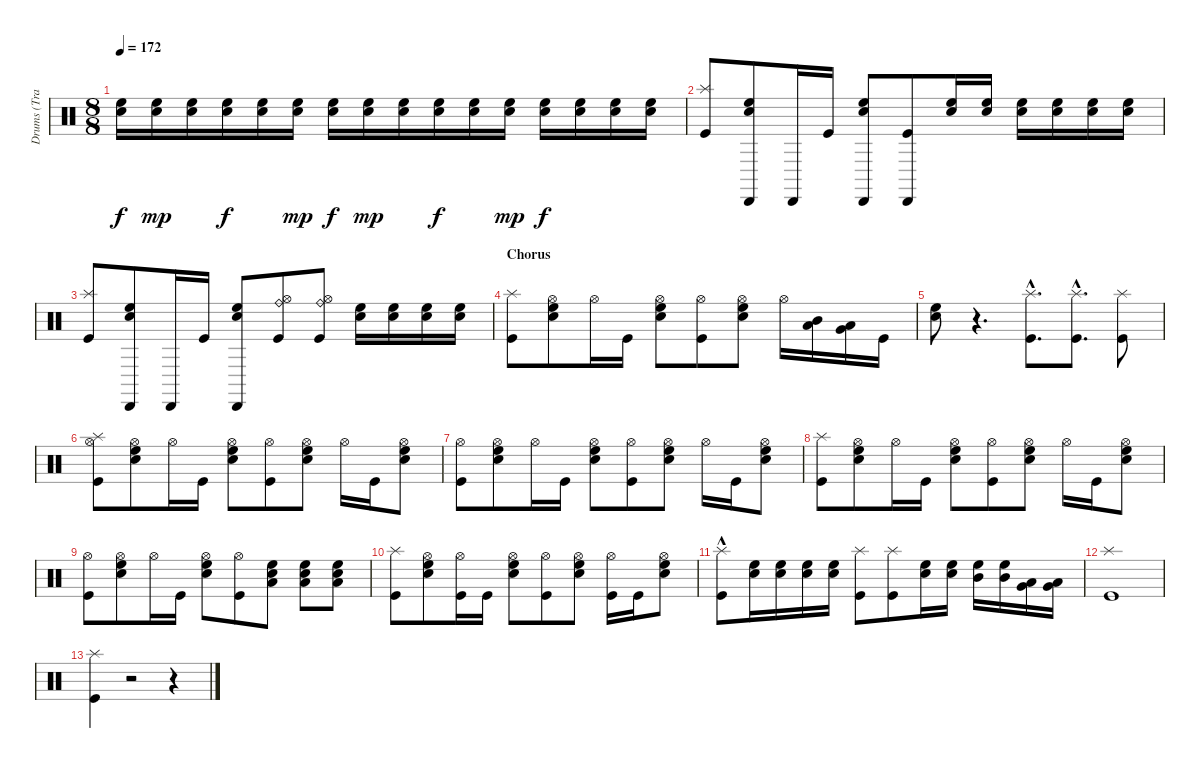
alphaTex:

\track ("Drums (Travis Barker)" "Drums (Tra") {instrument percussion}
\staff {score}
\articulation defaults
\ts (8 8)
\tempo 172
\clef neutral
\ks c
("High Floor Tom (hit)" "Electric Snare (hit)").16{dy f} ("Electric Snare (hit)" "High Floor Tom (hit)").16{dy mp} ("Electric Snare (hit)" "High Floor Tom (hit)").16 ("High Floor Tom (hit)" "Electric Snare (hit)").16{dy f} ("High Floor Tom (hit)" "Electric Snare (hit)").16 ("Electric Snare (hit)" "High Floor Tom (hit)").16{dy mp} ("High Floor Tom (hit)" "Electric Snare (hit)").16{dy f} ("Electric Snare (hit)" "High Floor Tom (hit)").16{dy mp} ("Electric Snare (hit)" "High Floor Tom (hit)").16 ("High Floor Tom (hit)" "Electric Snare (hit)").16{dy f} ("High Floor Tom (hit)" "Electric Snare (hit)").16 ("Electric Snare (hit)" "High Floor Tom (hit)").16{dy mp} ("High Floor Tom (hit)" "Electric Snare (hit)").16{dy f} ("High Floor Tom (hit)" "Electric Snare (hit)").16 ("High Floor Tom (hit)" "Electric Snare (hit)").16 ("High Floor Tom (hit)" "Electric Snare (hit)").16 |
("Splash (hit)" "Kick (hit)").8 ("Cabasa (hit)" "High Floor Tom (hit)" "Electric Snare (hit)").8 "Cabasa (hit)".16 "Kick (hit)".16 ("Cabasa (hit)" "High Floor Tom (hit)" "Electric Snare (hit)").8 ("Cabasa (hit)" "Kick (hit)").8 ("High Floor Tom (hit)" "Electric Snare (hit)").16 ("High Floor Tom (hit)" "Electric Snare (hit)").16 ("High Floor Tom (hit)" "Electric Snare (hit)").16 ("High Floor Tom (hit)" "Electric Snare (hit)").16 ("High Floor Tom (hit)" "Electric Snare (hit)").16 ("High Floor Tom (hit)" "Electric Snare (hit)").16 |
("Splash (hit)" "Kick (hit)").8 ("Cabasa (hit)" "High Floor Tom (hit)" "Electric Snare (hit)").8 "Cabasa (hit)".16 "Kick (hit)".16 ("Cabasa (hit)" "High Floor Tom (hit)" "Electric Snare (hit)").8 ("Ride (bell)" "Hi-Hat (open)" "Kick (hit)").8 ("Ride (bell)" "Hi-Hat (open)" "Kick (hit)").8 ("High Floor Tom (hit)" "Electric Snare (hit)").16 ("High Floor Tom (hit)" "Electric Snare (hit)").16 ("High Floor Tom (hit)" "Electric Snare (hit)").16 ("High Floor Tom (hit)" "Electric Snare (hit)").16 |
\section ("" "Chorus")
("Splash (hit)" "Kick (hit)").8 ("Hi-Hat (open)" "High Floor Tom (hit)" "Electric Snare (hit)").8 "Hi-Hat (open)".16 "Kick (hit)".16 ("Hi-Hat (open)" "High Floor Tom (hit)" "Electric Snare (hit)").8 ("Hi-Hat (open)" "Kick (hit)").8 ("Hi-Hat (open)" "High Floor Tom (hit)" "Electric Snare (hit)").8 "Hi-Hat (open)".16 ("Low Tom (hit)" "Mid Tom (hit)").16 ("Very Low Tom (hit)" "Low Floor Tom (hit)").16 "Kick (hit)".16 |
("High Floor Tom (hit)" "Electric Snare (hit)").8 r.4{d} ("Splash (hit)"{hac} "Kick (hit)"{hac}).8{d} ("Splash (hit)"{hac} "Kick (hit)"{hac}).8{d} ("Splash (hit)" "Kick (hit)").8 |
("Splash (hit)" "Hi-Hat (open)" "Kick (hit)").8 ("Hi-Hat (open)" "High Floor Tom (hit)" "Electric Snare (hit)").8 "Hi-Hat (open)".16 "Kick (hit)".16 ("Hi-Hat (open)" "High Floor Tom (hit)" "Electric Snare (hit)").8 ("Hi-Hat (open)" "Kick (hit)").8 ("Hi-Hat (open)" "High Floor Tom (hit)" "Electric Snare (hit)").8 "Hi-Hat (open)".16 "Kick (hit)".16 ("Hi-Hat (open)" "High Floor Tom (hit)" "Electric Snare (hit)").8 |
("Hi-Hat (open)" "Kick (hit)").8 ("Hi-Hat (open)" "High Floor Tom (hit)" "Electric Snare (hit)").8 "Hi-Hat (open)".16 "Kick (hit)".16 ("Hi-Hat (open)" "High Floor Tom (hit)" "Electric Snare (hit)").8 ("Hi-Hat (open)" "Kick (hit)").8 ("Hi-Hat (open)" "High Floor Tom (hit)" "Electric Snare (hit)").8 "Hi-Hat (open)".16 "Kick (hit)".16 ("Hi-Hat (open)" "High Floor Tom (hit)" "Electric Snare (hit)").8 |
("Splash (hit)" "Kick (hit)").8 ("Hi-Hat (open)" "High Floor Tom (hit)" "Electric Snare (hit)").8 "Hi-Hat (open)".16 "Kick (hit)".16 ("Hi-Hat (open)" "High Floor Tom (hit)" "Electric Snare (hit)").8 ("Hi-Hat (open)" "Kick (hit)").8 ("Hi-Hat (open)" "High Floor Tom (hit)" "Electric Snare (hit)").8 "Hi-Hat (open)".16 "Kick (hit)".16 ("Hi-Hat (open)" "High Floor Tom (hit)" "Electric Snare (hit)").8 |
("Hi-Hat (open)" "Kick (hit)").8 ("Hi-Hat (open)" "High Floor Tom (hit)" "Electric Snare (hit)").8 "Hi-Hat (open)".16 "Kick (hit)".16 ("Hi-Hat (open)" "High Floor Tom (hit)" "Electric Snare (hit)").8 ("Hi-Hat (open)" "Kick (hit)").8 ("Low Tom (hit)" "High Floor Tom (hit)" "Electric Snare (hit)").8 ("Low Tom (hit)" "High Floor Tom (hit)" "Electric Snare (hit)").8 ("Low Tom (hit)" "High Floor Tom (hit)" "Electric Snare (hit)").8 |
("Splash (hit)" "Kick (hit)").8 ("Hi-Hat (open)" "High Floor Tom (hit)" "Electric Snare (hit)").8 ("Hi-Hat (open)" "Kick (hit)").16 "Kick (hit)".16 ("Hi-Hat (open)" "High Floor Tom (hit)" "Electric Snare (hit)").8 ("Hi-Hat (open)" "Kick (hit)").8 ("Hi-Hat (open)" "High Floor Tom (hit)" "Electric Snare (hit)").8 ("Hi-Hat (open)" "Kick (hit)").16 "Kick (hit)".16 ("Hi-Hat (open)" "High Floor Tom (hit)" "Electric Snare (hit)").8 |
("Splash (hit)"{hac} "Kick (hit)").8 ("High Floor Tom (hit)" "Electric Snare (hit)").16 ("High Floor Tom (hit)" "Electric Snare (hit)").16 ("High Floor Tom (hit)" "Electric Snare (hit)").16 ("High Floor Tom (hit)" "Electric Snare (hit)").16 ("Kick (hit)" "Splash (hit)").8 ("Splash (hit)" "Kick (hit)").8 ("High Floor Tom (hit)" "Electric Snare (hit)").16 ("High Floor Tom (hit)" "Electric Snare (hit)").16 ("Mid Tom (hit)" "High Floor Tom (hit)").16 ("Mid Tom (hit)" "High Floor Tom (hit)").16 ("Low Tom (hit)" "Very Low Tom (hit)").16 ("Low Tom (hit)" "Very Low Tom (hit)").16 |
("Kick (hit)" "Splash (hit)").1 |
("Splash (hit)" "Kick (hit)").4 r.2 r.4
